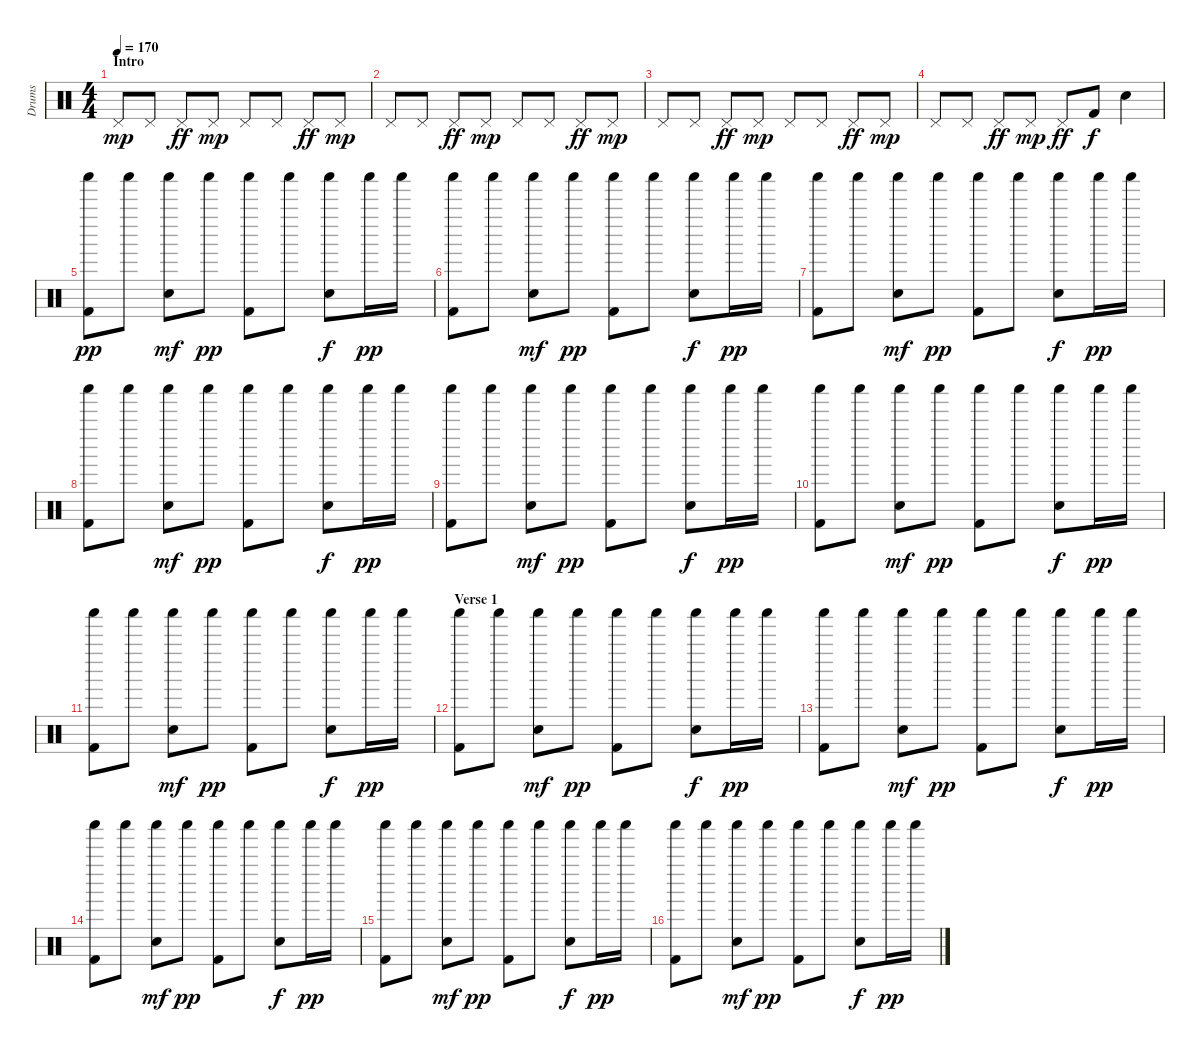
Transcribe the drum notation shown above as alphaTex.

\track ("Drums" "Drums") {instrument percussion}
\staff {score}
\articulation defaults
\ts (4 4)
\section ("" "Intro")
\tempo 170
\clef neutral
\ks c "Pedal Hi-Hat (hit)".8{dy mp} "Pedal Hi-Hat (hit)".8 "Pedal Hi-Hat (hit)".8{dy ff} "Pedal Hi-Hat (hit)".8{dy mp} "Pedal Hi-Hat (hit)".8 "Pedal Hi-Hat (hit)".8 "Pedal Hi-Hat (hit)".8{dy ff} "Pedal Hi-Hat (hit)".8{dy mp}
|
"Pedal Hi-Hat (hit)".8 "Pedal Hi-Hat (hit)".8 "Pedal Hi-Hat (hit)".8{dy ff} "Pedal Hi-Hat (hit)".8{dy mp} "Pedal Hi-Hat (hit)".8 "Pedal Hi-Hat (hit)".8 "Pedal Hi-Hat (hit)".8{dy ff} "Pedal Hi-Hat (hit)".8{dy mp} |
"Pedal Hi-Hat (hit)".8 "Pedal Hi-Hat (hit)".8 "Pedal Hi-Hat (hit)".8{dy ff} "Pedal Hi-Hat (hit)".8{dy mp} "Pedal Hi-Hat (hit)".8 "Pedal Hi-Hat (hit)".8 "Pedal Hi-Hat (hit)".8{dy ff} "Pedal Hi-Hat (hit)".8{dy mp} |
"Pedal Hi-Hat (hit)".8 "Pedal Hi-Hat (hit)".8 "Pedal Hi-Hat (hit)".8{dy ff} "Pedal Hi-Hat (hit)".8{dy mp} "Pedal Hi-Hat (hit)".8{dy ff} "Kick (hit) 2".8{dy f} "Snare (hit) 2".4 |
("Kick (hit) 2" "Shaker (hit)").8{dy pp} "Shaker (hit)".8 ("Snare (hit) 2" "Shaker (hit)").8{dy mf} "Shaker (hit)".8{dy pp} ("Kick (hit) 2" "Shaker (hit)").8 "Shaker (hit)".8 ("Snare (hit) 2" "Shaker (hit)").8{dy f} "Shaker (hit)".16{dy pp} "Shaker (hit)".16 |
("Kick (hit) 2" "Shaker (hit)").8 "Shaker (hit)".8 ("Snare (hit) 2" "Shaker (hit)").8{dy mf} "Shaker (hit)".8{dy pp} ("Kick (hit) 2" "Shaker (hit)").8 "Shaker (hit)".8 ("Snare (hit) 2" "Shaker (hit)").8{dy f} "Shaker (hit)".16{dy pp} "Shaker (hit)".16 |
("Kick (hit) 2" "Shaker (hit)").8 "Shaker (hit)".8 ("Snare (hit) 2" "Shaker (hit)").8{dy mf} "Shaker (hit)".8{dy pp} ("Kick (hit) 2" "Shaker (hit)").8 "Shaker (hit)".8 ("Snare (hit) 2" "Shaker (hit)").8{dy f} "Shaker (hit)".16{dy pp} "Shaker (hit)".16 |
("Kick (hit) 2" "Shaker (hit)").8 "Shaker (hit)".8 ("Snare (hit) 2" "Shaker (hit)").8{dy mf} "Shaker (hit)".8{dy pp} ("Kick (hit) 2" "Shaker (hit)").8 "Shaker (hit)".8 ("Snare (hit) 2" "Shaker (hit)").8{dy f} "Shaker (hit)".16{dy pp} "Shaker (hit)".16 |
("Kick (hit) 2" "Shaker (hit)").8 "Shaker (hit)".8 ("Snare (hit) 2" "Shaker (hit)").8{dy mf} "Shaker (hit)".8{dy pp} ("Kick (hit) 2" "Shaker (hit)").8 "Shaker (hit)".8 ("Snare (hit) 2" "Shaker (hit)").8{dy f} "Shaker (hit)".16{dy pp} "Shaker (hit)".16 |
("Kick (hit) 2" "Shaker (hit)").8 "Shaker (hit)".8 ("Snare (hit) 2" "Shaker (hit)").8{dy mf} "Shaker (hit)".8{dy pp} ("Kick (hit) 2" "Shaker (hit)").8 "Shaker (hit)".8 ("Snare (hit) 2" "Shaker (hit)").8{dy f} "Shaker (hit)".16{dy pp} "Shaker (hit)".16 |
("Kick (hit) 2" "Shaker (hit)").8 "Shaker (hit)".8 ("Snare (hit) 2" "Shaker (hit)").8{dy mf} "Shaker (hit)".8{dy pp} ("Kick (hit) 2" "Shaker (hit)").8 "Shaker (hit)".8 ("Snare (hit) 2" "Shaker (hit)").8{dy f} "Shaker (hit)".16{dy pp} "Shaker (hit)".16 |
\section ("" "Verse 1")
("Kick (hit) 2" "Shaker (hit)").8 "Shaker (hit)".8 ("Snare (hit) 2" "Shaker (hit)").8{dy mf} "Shaker (hit)".8{dy pp} ("Kick (hit) 2" "Shaker (hit)").8 "Shaker (hit)".8 ("Snare (hit) 2" "Shaker (hit)").8{dy f} "Shaker (hit)".16{dy pp} "Shaker (hit)".16 |
("Kick (hit) 2" "Shaker (hit)").8 "Shaker (hit)".8 ("Snare (hit) 2" "Shaker (hit)").8{dy mf} "Shaker (hit)".8{dy pp} ("Kick (hit) 2" "Shaker (hit)").8 "Shaker (hit)".8 ("Snare (hit) 2" "Shaker (hit)").8{dy f} "Shaker (hit)".16{dy pp} "Shaker (hit)".16 |
("Kick (hit) 2" "Shaker (hit)").8 "Shaker (hit)".8 ("Snare (hit) 2" "Shaker (hit)").8{dy mf} "Shaker (hit)".8{dy pp} ("Kick (hit) 2" "Shaker (hit)").8 "Shaker (hit)".8 ("Snare (hit) 2" "Shaker (hit)").8{dy f} "Shaker (hit)".16{dy pp} "Shaker (hit)".16 |
("Kick (hit) 2" "Shaker (hit)").8 "Shaker (hit)".8 ("Snare (hit) 2" "Shaker (hit)").8{dy mf} "Shaker (hit)".8{dy pp} ("Kick (hit) 2" "Shaker (hit)").8 "Shaker (hit)".8 ("Snare (hit) 2" "Shaker (hit)").8{dy f} "Shaker (hit)".16{dy pp} "Shaker (hit)".16 |
("Kick (hit) 2" "Shaker (hit)").8 "Shaker (hit)".8 ("Snare (hit) 2" "Shaker (hit)").8{dy mf} "Shaker (hit)".8{dy pp} ("Kick (hit) 2" "Shaker (hit)").8 "Shaker (hit)".8 ("Snare (hit) 2" "Shaker (hit)").8{dy f} "Shaker (hit)".16{dy pp} "Shaker (hit)".16
